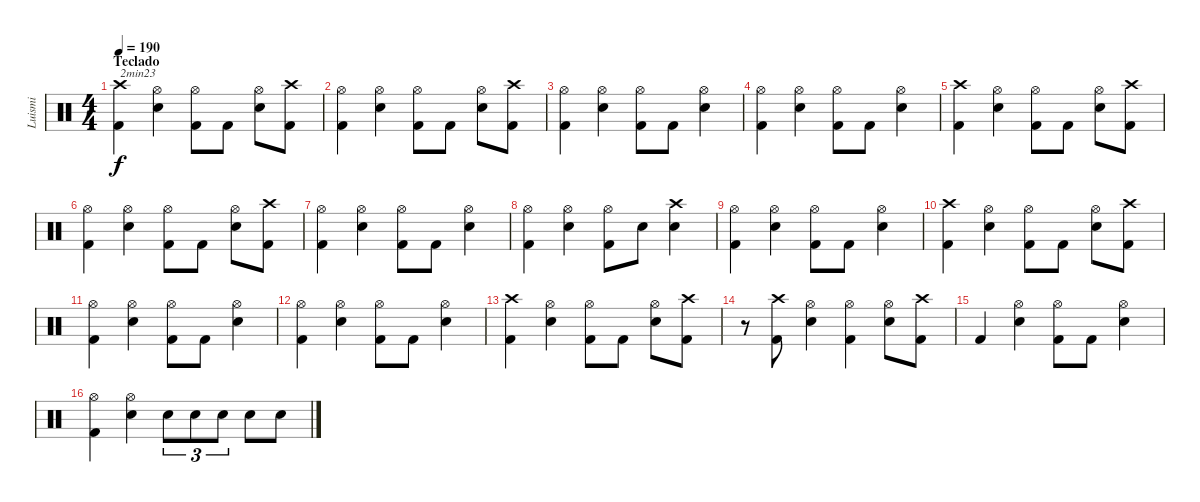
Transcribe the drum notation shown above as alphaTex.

\track ("Luismi" "Luismi") {instrument percussion}
\staff {score}
\articulation defaults
\ts (4 4)
\section ("" "Teclado")
\tempo 190
\clef neutral
\ks c
("Crash high (hit)" "Kick (hit) 2").4{txt "2min23" dy f} ("Hi-Hat (open)" "Electric Snare (hit)").4 ("Hi-Hat (open)" "Kick (hit) 2").8 "Kick (hit) 2".8 ("Hi-Hat (open)" "Electric Snare (hit)").8 ("Crash high (hit)" "Kick (hit) 2").8 |
("Hi-Hat (open)" "Kick (hit) 2").4 ("Hi-Hat (open)" "Electric Snare (hit)").4 ("Hi-Hat (open)" "Kick (hit) 2").8 "Kick (hit) 2".8 ("Hi-Hat (open)" "Electric Snare (hit)").8 ("Crash high (hit)" "Kick (hit) 2").8 |
("Hi-Hat (open)" "Kick (hit) 2").4 ("Hi-Hat (open)" "Electric Snare (hit)").4 ("Hi-Hat (open)" "Kick (hit) 2").8 "Kick (hit) 2".8 ("Hi-Hat (open)" "Electric Snare (hit)").4 |
("Hi-Hat (open)" "Kick (hit) 2").4 ("Hi-Hat (open)" "Electric Snare (hit)").4 ("Hi-Hat (open)" "Kick (hit) 2").8 "Kick (hit) 2".8 ("Hi-Hat (open)" "Electric Snare (hit)").4 |
("Crash high (hit)" "Kick (hit) 2").4 ("Hi-Hat (open)" "Electric Snare (hit)").4 ("Hi-Hat (open)" "Kick (hit) 2").8 "Kick (hit) 2".8 ("Hi-Hat (open)" "Electric Snare (hit)").8 ("Crash high (hit)" "Kick (hit) 2").8 |
("Hi-Hat (open)" "Kick (hit) 2").4 ("Hi-Hat (open)" "Electric Snare (hit)").4 ("Hi-Hat (open)" "Kick (hit) 2").8 "Kick (hit) 2".8 ("Hi-Hat (open)" "Electric Snare (hit)").8 ("Crash high (hit)" "Kick (hit) 2").8 |
("Hi-Hat (open)" "Kick (hit) 2").4 ("Hi-Hat (open)" "Electric Snare (hit)").4 ("Hi-Hat (open)" "Kick (hit) 2").8 "Kick (hit) 2".8 ("Hi-Hat (open)" "Electric Snare (hit)").4 |
("Hi-Hat (open)" "Kick (hit) 2").4 ("Hi-Hat (open)" "Electric Snare (hit)").4 ("Hi-Hat (open)" "Kick (hit) 2").8 "Electric Snare (hit)".8 ("Crash high (hit)" "Electric Snare (hit)").4 |
("Hi-Hat (open)" "Kick (hit) 2").4 ("Hi-Hat (open)" "Electric Snare (hit)").4 ("Hi-Hat (open)" "Kick (hit) 2").8 "Kick (hit) 2".8 ("Hi-Hat (open)" "Electric Snare (hit)").4 |
("Crash high (hit)" "Kick (hit) 2").4 ("Hi-Hat (open)" "Electric Snare (hit)").4 ("Hi-Hat (open)" "Kick (hit) 2").8 "Kick (hit) 2".8 ("Hi-Hat (open)" "Electric Snare (hit)").8 ("Crash high (hit)" "Kick (hit) 2").8 |
("Hi-Hat (open)" "Kick (hit) 2").4 ("Hi-Hat (open)" "Electric Snare (hit)").4 ("Hi-Hat (open)" "Kick (hit) 2").8 "Kick (hit) 2".8 ("Hi-Hat (open)" "Electric Snare (hit)").4 |
("Hi-Hat (open)" "Kick (hit) 2").4 ("Hi-Hat (open)" "Electric Snare (hit)").4 ("Hi-Hat (open)" "Kick (hit) 2").8 "Kick (hit) 2".8 ("Hi-Hat (open)" "Electric Snare (hit)").4 |
("Crash high (hit)" "Kick (hit) 2").4 ("Hi-Hat (open)" "Electric Snare (hit)").4 ("Hi-Hat (open)" "Kick (hit) 2").8 "Kick (hit) 2".8 ("Hi-Hat (open)" "Electric Snare (hit)").8 ("Crash high (hit)" "Kick (hit) 2").8 |
r.8 ("Crash high (hit)" "Kick (hit) 2").8 ("Hi-Hat (open)" "Electric Snare (hit)").4 ("Hi-Hat (open)" "Kick (hit) 2").4 ("Hi-Hat (open)" "Electric Snare (hit)").8 ("Crash high (hit)" "Kick (hit) 2").8 |
"Kick (hit) 2".4 ("Hi-Hat (open)" "Electric Snare (hit)").4 ("Hi-Hat (open)" "Kick (hit) 2").8 "Kick (hit) 2".8 ("Hi-Hat (open)" "Electric Snare (hit)").4 |
("Hi-Hat (open)" "Kick (hit) 2").4 ("Hi-Hat (open)" "Electric Snare (hit)").4 "Electric Snare (hit)".8{tu (3 2)} "Electric Snare (hit)".8{tu (3 2)} "Electric Snare (hit)".8{tu (3 2)} "Electric Snare (hit)".8 "Electric Snare (hit)".8
